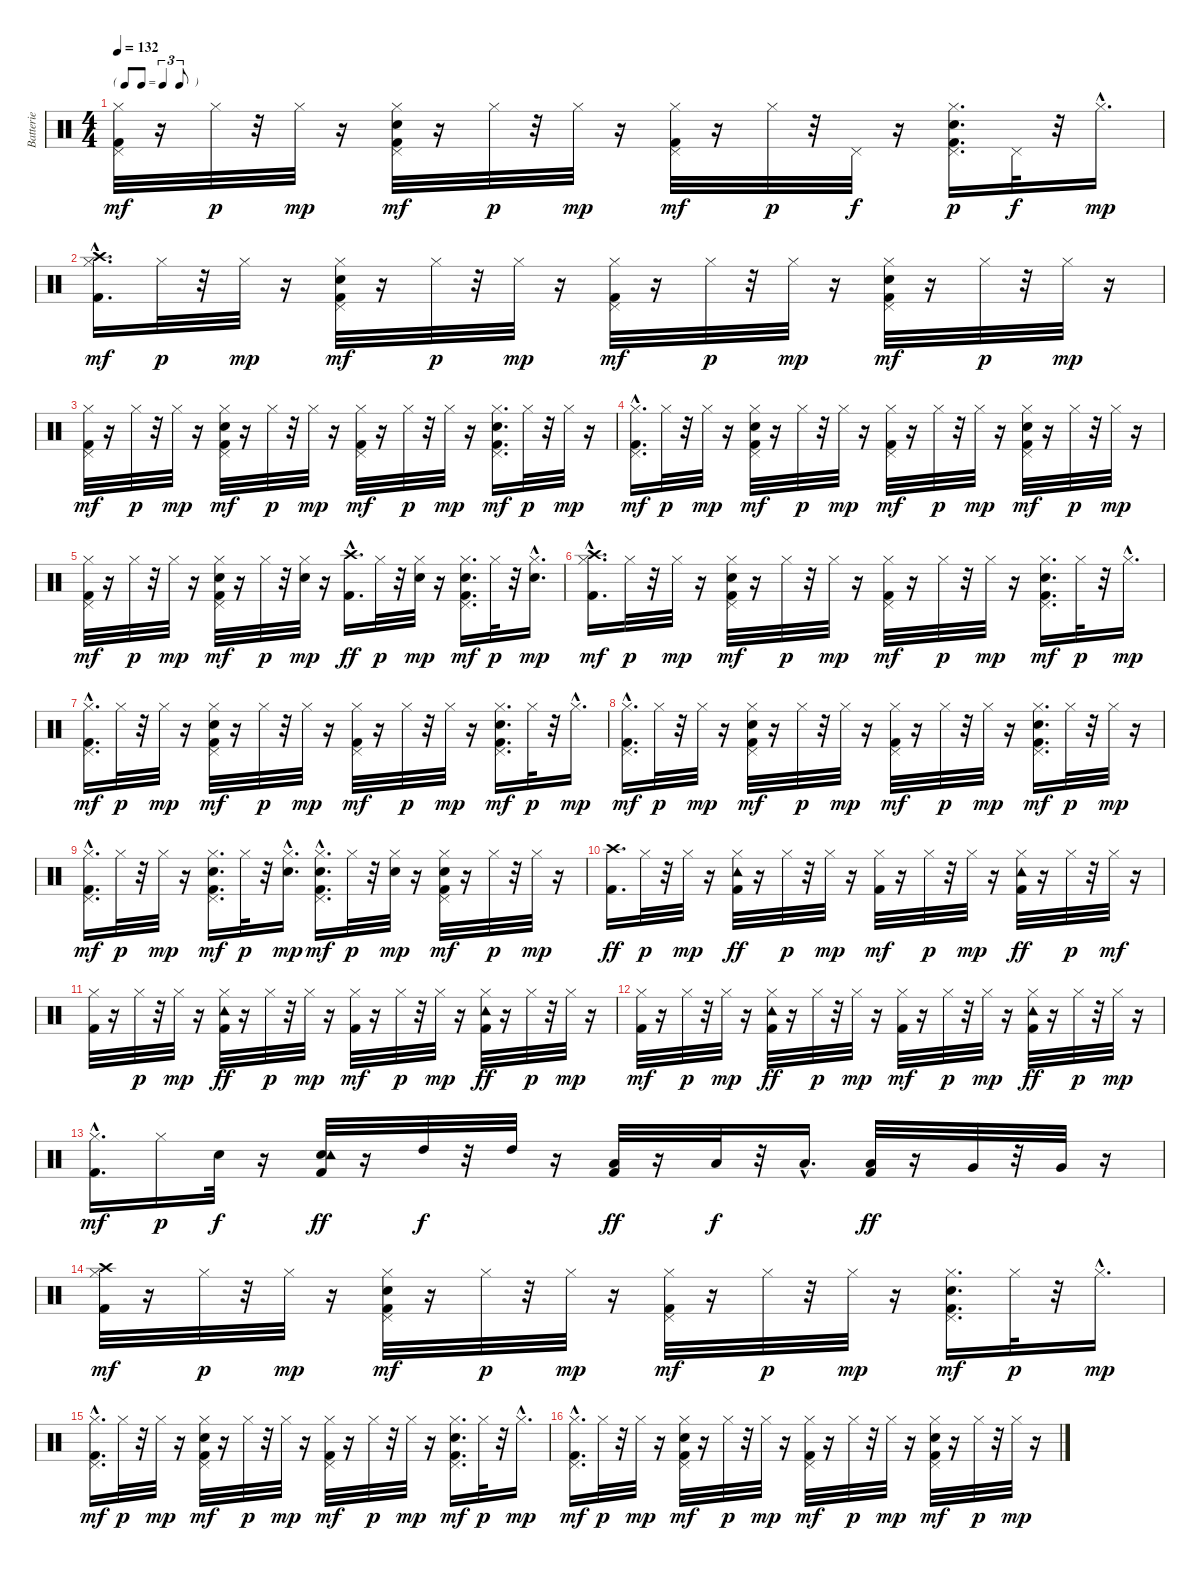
\track ("Batterie" "Batterie") {instrument percussion}
\staff {score}
\articulation defaults
\ts (4 4)
\tf triplet8th
\tempo 132
\clef neutral
\ks c
("Kick (hit) 2" "Hi-Hat (closed)" "Pedal Hi-Hat (hit)").32{dy mf} r.16 "Hi-Hat (closed)".32{dy p} r.32 "Hi-Hat (closed)".32{dy mp} r.16 ("Kick (hit) 2" "Snare (hit) 2" "Hi-Hat (closed)" "Pedal Hi-Hat (hit)").32{dy mf} r.16 "Hi-Hat (closed)".32{dy p} r.32 "Hi-Hat (closed)".32{dy mp} r.16 ("Kick (hit) 2" "Hi-Hat (closed)" "Pedal Hi-Hat (hit)").32{dy mf} r.16 "Hi-Hat (closed)".32{dy p} r.32 "Pedal Hi-Hat (hit)".32{dy f} r.16 ("Kick (hit) 2" "Snare (hit) 2" "Hi-Hat (closed)" "Pedal Hi-Hat (hit)").16{d dy p} "Pedal Hi-Hat (hit)".32{dy f} r.32 "Hi-Hat (closed)"{hac}.16{d dy mp} |
("Kick (hit) 2"{hac} "Hi-Hat (closed)"{hac} "Crash high (hit)").16{d dy mf} "Hi-Hat (closed)".32{dy p} r.32 "Hi-Hat (closed)".32{dy mp} r.16 ("Kick (hit) 2" "Snare (hit) 2" "Hi-Hat (closed)" "Pedal Hi-Hat (hit)").32{dy mf} r.16 "Hi-Hat (closed)".32{dy p} r.32 "Hi-Hat (closed)".32{dy mp} r.16 ("Kick (hit) 2" "Hi-Hat (closed)" "Pedal Hi-Hat (hit)").32{dy mf} r.16 "Hi-Hat (closed)".32{dy p} r.32 "Hi-Hat (closed)".32{dy mp} r.16 ("Kick (hit) 2" "Snare (hit) 2" "Hi-Hat (closed)" "Pedal Hi-Hat (hit)").32{dy mf} r.16 "Hi-Hat (closed)".32{dy p} r.32 "Hi-Hat (closed)".32{dy mp} r.16 |
("Kick (hit) 2" "Hi-Hat (closed)" "Pedal Hi-Hat (hit)").32{dy mf} r.16 "Hi-Hat (closed)".32{dy p} r.32 "Hi-Hat (closed)".32{dy mp} r.16 ("Kick (hit) 2" "Snare (hit) 2" "Hi-Hat (closed)" "Pedal Hi-Hat (hit)").32{dy mf} r.16 "Hi-Hat (closed)".32{dy p} r.32 "Hi-Hat (closed)".32{dy mp} r.16 ("Kick (hit) 2" "Hi-Hat (closed)" "Pedal Hi-Hat (hit)").32{dy mf} r.16 "Hi-Hat (closed)".32{dy p} r.32 "Hi-Hat (closed)".32{dy mp} r.16 ("Kick (hit) 2" "Snare (hit) 2" "Hi-Hat (closed)" "Pedal Hi-Hat (hit)").16{d dy mf} "Hi-Hat (closed)".32{dy p} r.32 "Hi-Hat (closed)".32{dy mp} r.16 |
("Kick (hit) 2" "Hi-Hat (closed)" "Pedal Hi-Hat (hit)"{hac}).16{d dy mf} "Hi-Hat (closed)".32{dy p} r.32 "Hi-Hat (closed)".32{dy mp} r.16 ("Kick (hit) 2" "Snare (hit) 2" "Hi-Hat (closed)" "Pedal Hi-Hat (hit)").32{dy mf} r.16 "Hi-Hat (closed)".32{dy p} r.32 "Hi-Hat (closed)".32{dy mp} r.16 ("Kick (hit) 2" "Hi-Hat (closed)" "Pedal Hi-Hat (hit)").32{dy mf} r.16 "Hi-Hat (closed)".32{dy p} r.32 "Hi-Hat (closed)".32{dy mp} r.16 ("Kick (hit) 2" "Snare (hit) 2" "Hi-Hat (closed)" "Pedal Hi-Hat (hit)").32{dy mf} r.16 "Hi-Hat (closed)".32{dy p} r.32 "Hi-Hat (closed)".32{dy mp} r.16 |
("Kick (hit) 2" "Hi-Hat (closed)" "Pedal Hi-Hat (hit)").32{dy mf} r.16 "Hi-Hat (closed)".32{dy p} r.32 "Hi-Hat (closed)".32{dy mp} r.16 ("Kick (hit) 2" "Snare (hit) 2" "Hi-Hat (closed)" "Pedal Hi-Hat (hit)").32{dy mf} r.16 "Hi-Hat (closed)".32{dy p} r.32 ("Snare (hit) 2" "Hi-Hat (closed)").32{dy mp} r.16 ("Kick (hit) 2"{hac} "Crash high (hit)").16{d dy ff} "Hi-Hat (closed)".32{dy p} r.32 ("Snare (hit) 2" "Hi-Hat (closed)").32{dy mp} r.16 ("Kick (hit) 2" "Snare (hit) 2" "Hi-Hat (closed)" "Pedal Hi-Hat (hit)").16{d dy mf} "Hi-Hat (closed)".32{dy p} r.32 ("Snare (hit) 2" "Hi-Hat (closed)"{hac}).16{d dy mp} |
("Kick (hit) 2" "Hi-Hat (closed)"{hac} "Crash high (hit)"{hac}).16{d dy mf} "Hi-Hat (closed)".32{dy p} r.32 "Hi-Hat (closed)".32{dy mp} r.16 ("Kick (hit) 2" "Snare (hit) 2" "Hi-Hat (closed)" "Pedal Hi-Hat (hit)").32{dy mf} r.16 "Hi-Hat (closed)".32{dy p} r.32 "Hi-Hat (closed)".32{dy mp} r.16 ("Kick (hit) 2" "Hi-Hat (closed)" "Pedal Hi-Hat (hit)").32{dy mf} r.16 "Hi-Hat (closed)".32{dy p} r.32 "Hi-Hat (closed)".32{dy mp} r.16 ("Kick (hit) 2" "Snare (hit) 2" "Hi-Hat (closed)" "Pedal Hi-Hat (hit)").16{d dy mf} "Hi-Hat (closed)".32{dy p} r.32 "Hi-Hat (closed)"{hac}.16{d dy mp} |
("Kick (hit) 2" "Hi-Hat (closed)"{hac} "Pedal Hi-Hat (hit)"{hac}).16{d dy mf} "Hi-Hat (closed)".32{dy p} r.32 "Hi-Hat (closed)".32{dy mp} r.16 ("Kick (hit) 2" "Snare (hit) 2" "Hi-Hat (closed)" "Pedal Hi-Hat (hit)").32{dy mf} r.16 "Hi-Hat (closed)".32{dy p} r.32 "Hi-Hat (closed)".32{dy mp} r.16 ("Kick (hit) 2" "Hi-Hat (closed)" "Pedal Hi-Hat (hit)").32{dy mf} r.16 "Hi-Hat (closed)".32{dy p} r.32 "Hi-Hat (closed)".32{dy mp} r.16 ("Kick (hit) 2" "Snare (hit) 2" "Hi-Hat (closed)" "Pedal Hi-Hat (hit)").16{d dy mf} "Hi-Hat (closed)".32{dy p} r.32 "Hi-Hat (closed)"{hac}.16{d dy mp} |
("Kick (hit) 2"{hac} "Hi-Hat (closed)"{hac} "Pedal Hi-Hat (hit)"{hac}).16{d dy mf} "Hi-Hat (closed)".32{dy p} r.32 "Hi-Hat (closed)".32{dy mp} r.16 ("Kick (hit) 2" "Snare (hit) 2" "Hi-Hat (closed)" "Pedal Hi-Hat (hit)").32{dy mf} r.16 "Hi-Hat (closed)".32{dy p} r.32 "Hi-Hat (closed)".32{dy mp} r.16 ("Kick (hit) 2" "Hi-Hat (closed)" "Pedal Hi-Hat (hit)").32{dy mf} r.16 "Hi-Hat (closed)".32{dy p} r.32 "Hi-Hat (closed)".32{dy mp} r.16 ("Kick (hit) 2" "Snare (hit) 2" "Hi-Hat (closed)" "Pedal Hi-Hat (hit)").16{d dy mf} "Hi-Hat (closed)".32{dy p} r.32 "Hi-Hat (closed)".32{dy mp} r.16 |
("Kick (hit) 2" "Hi-Hat (closed)" "Pedal Hi-Hat (hit)"{hac}).16{d dy mf} "Hi-Hat (closed)".32{dy p} r.32 "Hi-Hat (closed)".32{dy mp} r.16 ("Kick (hit) 2" "Snare (hit) 2" "Hi-Hat (closed)" "Pedal Hi-Hat (hit)").16{d dy mf} "Hi-Hat (closed)".32{dy p} r.32 ("Snare (hit) 2"{hac} "Hi-Hat (closed)"{hac}).16{d dy mp} ("Kick (hit) 2"{hac} "Snare (hit) 2"{hac} "Hi-Hat (closed)"{hac} "Pedal Hi-Hat (hit)").16{d dy mf} "Hi-Hat (closed)".32{dy p} r.32 ("Snare (hit) 2" "Hi-Hat (closed)").32{dy mp} r.16 ("Kick (hit) 2" "Snare (hit) 2" "Hi-Hat (closed)" "Pedal Hi-Hat (hit)").32{dy mf} r.16 "Hi-Hat (closed)".32{dy p} r.32 "Hi-Hat (closed)".32{dy mp} r.16 |
("Crash high (hit)" "Kick (hit) 2").16{d dy ff} "Hi-Hat (closed)".32{dy p} r.32 "Hi-Hat (closed)".32{dy mp} r.16 ("Kick (hit) 2" "Hi-Hat (closed)" "Tambourine (hit)").32{dy ff} r.16 "Hi-Hat (closed)".32{dy p} r.32 "Hi-Hat (closed)".32{dy mp} r.16 ("Kick (hit) 2" "Hi-Hat (closed)").32{dy mf} r.16 "Hi-Hat (closed)".32{dy p} r.32 "Hi-Hat (closed)".32{dy mp} r.16 ("Kick (hit) 2" "Hi-Hat (closed)" "Tambourine (hit)").32{dy ff} r.16 "Hi-Hat (closed)".32{dy p} r.32 "Hi-Hat (closed)".32{dy mf} r.16 |
("Kick (hit) 2" "Hi-Hat (closed)").32 r.16 "Hi-Hat (closed)".32{dy p} r.32 "Hi-Hat (closed)".32{dy mp} r.16 ("Kick (hit) 2" "Hi-Hat (closed)" "Tambourine (hit)").32{dy ff} r.16 "Hi-Hat (closed)".32{dy p} r.32 "Hi-Hat (closed)".32{dy mp} r.16 ("Kick (hit) 2" "Hi-Hat (closed)").32{dy mf} r.16 "Hi-Hat (closed)".32{dy p} r.32 "Hi-Hat (closed)".32{dy mp} r.16 ("Kick (hit) 2" "Hi-Hat (closed)" "Tambourine (hit)").32{dy ff} r.16 "Hi-Hat (closed)".32{dy p} r.32 "Hi-Hat (closed)".32{dy mp} r.16 |
("Kick (hit) 2" "Hi-Hat (closed)").32{dy mf} r.16 "Hi-Hat (closed)".32{dy p} r.32 "Hi-Hat (closed)".32{dy mp} r.16 ("Kick (hit) 2" "Hi-Hat (closed)" "Tambourine (hit)").32{dy ff} r.16 "Hi-Hat (closed)".32{dy p} r.32 "Hi-Hat (closed)".32{dy mp} r.16 ("Kick (hit) 2" "Hi-Hat (closed)").32{dy mf} r.16 "Hi-Hat (closed)".32{dy p} r.32 "Hi-Hat (closed)".32{dy mp} r.16 ("Kick (hit) 2" "Hi-Hat (closed)" "Tambourine (hit)").32{dy ff} r.16 "Hi-Hat (closed)".32{dy p} r.32 "Hi-Hat (closed)".32{dy mp} r.16 |
("Kick (hit) 2" "Hi-Hat (closed)"{hac}).16{d dy mf} "Hi-Hat (closed)".16{dy p} "Snare (hit) 2".32{dy f} r.16 ("Kick (hit) 2" "Snare (hit) 2" "Tambourine (hit)").32{dy ff} r.16 "High Tom (hit)".32{dy f} r.32 "High Tom (hit)".32 r.16 ("Kick (hit) 2" "Low Tom (hit)").32{dy ff} r.16 "Low Tom (hit)".32{dy f} r.32 "Low Floor Tom (hit)"{hac}.16{d} ("Kick (hit) 2" "Low Floor Tom (hit)").32{dy ff} r.16 "Very Low Tom (hit)".32 r.32 "Very Low Tom (hit)".32 r.16 |
("Kick (hit) 2" "Hi-Hat (closed)" "Crash high (hit)").32{dy mf} r.16 "Hi-Hat (closed)".32{dy p} r.32 "Hi-Hat (closed)".32{dy mp} r.16 ("Kick (hit) 2" "Snare (hit) 2" "Hi-Hat (closed)" "Pedal Hi-Hat (hit)").32{dy mf} r.16 "Hi-Hat (closed)".32{dy p} r.32 "Hi-Hat (closed)".32{dy mp} r.16 ("Kick (hit) 2" "Hi-Hat (closed)" "Pedal Hi-Hat (hit)").32{dy mf} r.16 "Hi-Hat (closed)".32{dy p} r.32 "Hi-Hat (closed)".32{dy mp} r.16 ("Kick (hit) 2" "Snare (hit) 2" "Hi-Hat (closed)" "Pedal Hi-Hat (hit)").16{d dy mf} "Hi-Hat (closed)".32{dy p} r.32 "Hi-Hat (closed)"{hac}.16{d dy mp} |
("Kick (hit) 2"{hac} "Hi-Hat (closed)"{hac} "Pedal Hi-Hat (hit)"{hac}).16{d dy mf} "Hi-Hat (closed)".32{dy p} r.32 "Hi-Hat (closed)".32{dy mp} r.16 ("Kick (hit) 2" "Snare (hit) 2" "Hi-Hat (closed)" "Pedal Hi-Hat (hit)").32{dy mf} r.16 "Hi-Hat (closed)".32{dy p} r.32 "Hi-Hat (closed)".32{dy mp} r.16 ("Kick (hit) 2" "Hi-Hat (closed)" "Pedal Hi-Hat (hit)").32{dy mf} r.16 "Hi-Hat (closed)".32{dy p} r.32 "Hi-Hat (closed)".32{dy mp} r.16 ("Kick (hit) 2" "Snare (hit) 2" "Hi-Hat (closed)" "Pedal Hi-Hat (hit)").16{d dy mf} "Hi-Hat (closed)".32{dy p} r.32 "Hi-Hat (closed)"{hac}.16{d dy mp} |
("Kick (hit) 2"{hac} "Hi-Hat (closed)"{hac} "Pedal Hi-Hat (hit)"{hac}).16{d dy mf} "Hi-Hat (closed)".32{dy p} r.32 "Hi-Hat (closed)".32{dy mp} r.16 ("Kick (hit) 2" "Snare (hit) 2" "Hi-Hat (closed)" "Pedal Hi-Hat (hit)").32{dy mf} r.16 "Hi-Hat (closed)".32{dy p} r.32 "Hi-Hat (closed)".32{dy mp} r.16 ("Kick (hit) 2" "Hi-Hat (closed)" "Pedal Hi-Hat (hit)").32{dy mf} r.16 "Hi-Hat (closed)".32{dy p} r.32 "Hi-Hat (closed)".32{dy mp} r.16 ("Kick (hit) 2" "Snare (hit) 2" "Hi-Hat (closed)" "Pedal Hi-Hat (hit)").32{dy mf} r.16 "Hi-Hat (closed)".32{dy p} r.32 "Hi-Hat (closed)".32{dy mp} r.16
